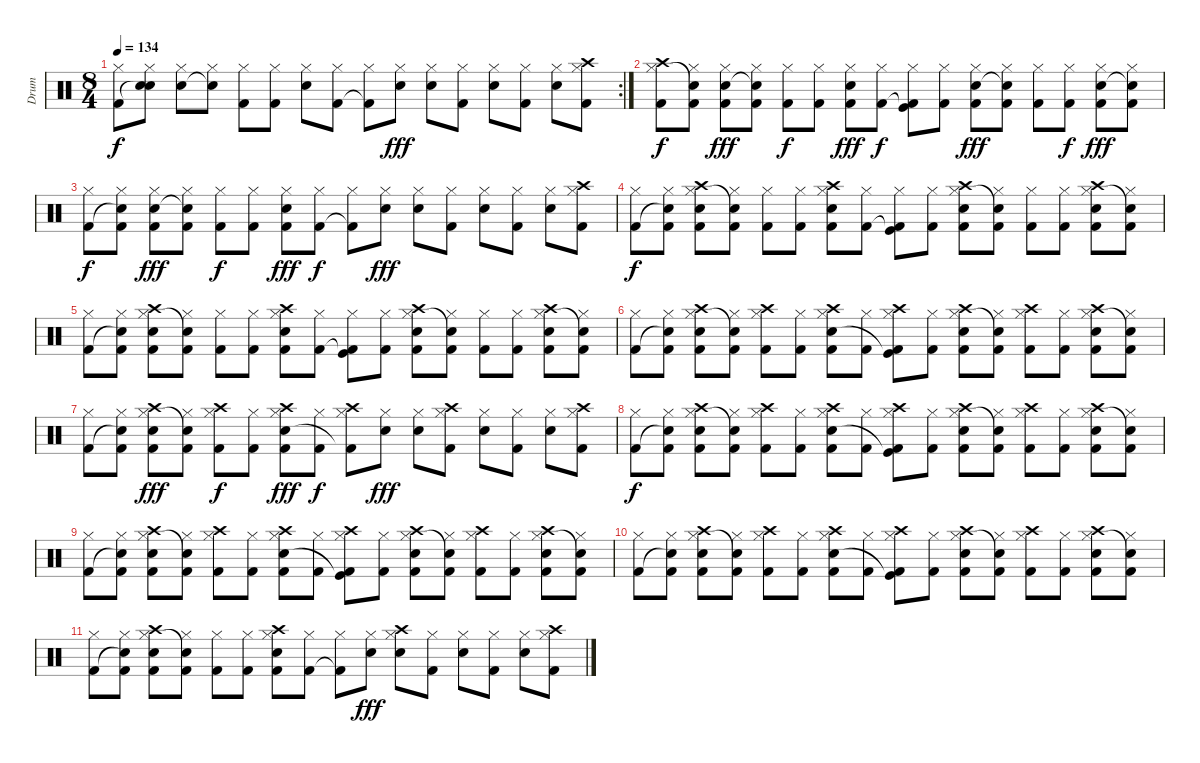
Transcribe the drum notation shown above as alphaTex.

\track ("Drum" "Drum") {instrument percussion}
\staff {score}
\articulation defaults
\rc 2
\ts (8 4)
\tempo 134
\clef neutral
\ks c
("Hi-Hat (closed)" "Kick (hit) 2").8{dy f} ("Hi-Hat (closed)" "Snare (hit)"{t} "Snare (hit)"{t}).8 ("Hi-Hat (closed)" "Snare (hit) 2").8 ("Hi-Hat (closed)" "Snare (hit)"{t}).8 ("Hi-Hat (closed)" "Kick (hit) 2").8 ("Hi-Hat (closed)" "Kick (hit) 2").8 ("Hi-Hat (closed)" "Snare (hit) 2").8 ("Hi-Hat (closed)" "Kick (hit) 2").8 ("Hi-Hat (closed)" "Kick (hit) 2"{t}).8 ("Hi-Hat (closed)" "Snare (hit) 2").8{dy fff} ("Hi-Hat (closed)" "Snare (hit) 2").8 ("Hi-Hat (closed)" "Kick (hit) 2").8 ("Hi-Hat (closed)" "Snare (hit) 2").8 ("Hi-Hat (closed)" "Kick (hit) 2").8 ("Hi-Hat (closed)" "Snare (hit) 2").8 ("Crash high (hit)" "Hi-Hat (closed)" "Kick (hit) 2").8 |
("Crash high (hit)" "Hi-Hat (closed)" "Kick (hit) 2").8{dy f} ("Hi-Hat (closed)" "Snare (hit)"{t} "Kick (hit) 2").8 ("Hi-Hat (closed)" "Snare (hit) 2" "Kick (hit) 2").8{dy fff} ("Hi-Hat (closed)" "Snare (hit)"{t} "Kick (hit) 2").8 ("Hi-Hat (closed)" "Kick (hit) 2").8{dy f} ("Hi-Hat (closed)" "Kick (hit) 2").8 ("Hi-Hat (closed)" "Snare (hit) 2" "Kick (hit) 2").8{dy fff} ("Hi-Hat (closed)" "Kick (hit) 2").8{dy f} ("Hi-Hat (closed)" "Kick (hit)"{t} "Kick (hit) 2").8 ("Hi-Hat (closed)" "Kick (hit) 2").8 ("Hi-Hat (closed)" "Snare (hit) 2" "Kick (hit) 2").8{dy fff} ("Hi-Hat (closed)" "Snare (hit)"{t} "Kick (hit) 2").8 ("Hi-Hat (closed)" "Kick (hit) 2").8 ("Hi-Hat (closed)" "Kick (hit) 2").8{dy f} ("Hi-Hat (closed)" "Snare (hit) 2" "Kick (hit) 2").8{dy fff} ("Hi-Hat (closed)" "Snare (hit)"{t} "Kick (hit) 2").8 |
("Hi-Hat (closed)" "Kick (hit) 2").8{dy f} ("Hi-Hat (closed)" "Snare (hit)"{t} "Kick (hit) 2").8 ("Hi-Hat (closed)" "Snare (hit) 2" "Kick (hit) 2").8{dy fff} ("Hi-Hat (closed)" "Snare (hit)"{t} "Kick (hit) 2").8 ("Hi-Hat (closed)" "Kick (hit) 2").8{dy f} ("Hi-Hat (closed)" "Kick (hit) 2").8 ("Hi-Hat (closed)" "Snare (hit) 2" "Kick (hit) 2").8{dy fff} ("Hi-Hat (closed)" "Kick (hit) 2").8{dy f} ("Hi-Hat (closed)" "Kick (hit) 2"{t}).8 ("Hi-Hat (closed)" "Snare (hit) 2").8{dy fff} ("Hi-Hat (closed)" "Snare (hit) 2").8 ("Hi-Hat (closed)" "Kick (hit) 2").8 ("Hi-Hat (closed)" "Snare (hit) 2").8 ("Hi-Hat (closed)" "Kick (hit) 2").8 ("Hi-Hat (closed)" "Snare (hit) 2").8 ("Crash high (hit)" "Hi-Hat (closed)" "Kick (hit) 2").8 |
("Hi-Hat (closed)" "Kick (hit) 2").8{dy f} ("Hi-Hat (closed)" "Snare (hit)"{t} "Kick (hit) 2").8 ("Crash high (hit)" "Hi-Hat (closed)" "Snare (hit) 2" "Kick (hit) 2").8 ("Hi-Hat (closed)" "Snare (hit)"{t} "Kick (hit) 2").8 ("Hi-Hat (closed)" "Kick (hit) 2").8 ("Hi-Hat (closed)" "Kick (hit) 2").8 ("Crash high (hit)" "Hi-Hat (closed)" "Snare (hit) 2" "Kick (hit) 2").8 ("Hi-Hat (closed)" "Kick (hit) 2").8 ("Hi-Hat (closed)" "Kick (hit)"{t} "Kick (hit) 2").8 ("Hi-Hat (closed)" "Kick (hit) 2").8 ("Crash high (hit)" "Hi-Hat (closed)" "Snare (hit) 2" "Kick (hit) 2").8 ("Hi-Hat (closed)" "Snare (hit)"{t} "Kick (hit) 2").8 ("Hi-Hat (closed)" "Kick (hit) 2").8 ("Hi-Hat (closed)" "Kick (hit) 2").8 ("Crash high (hit)" "Hi-Hat (closed)" "Snare (hit) 2" "Kick (hit) 2").8 ("Hi-Hat (closed)" "Snare (hit)"{t} "Kick (hit) 2").8 |
("Hi-Hat (closed)" "Kick (hit) 2").8 ("Hi-Hat (closed)" "Snare (hit)"{t} "Kick (hit) 2").8 ("Crash high (hit)" "Hi-Hat (closed)" "Snare (hit) 2" "Kick (hit) 2").8 ("Hi-Hat (closed)" "Snare (hit)"{t} "Kick (hit) 2").8 ("Hi-Hat (closed)" "Kick (hit) 2").8 ("Hi-Hat (closed)" "Kick (hit) 2").8 ("Crash high (hit)" "Hi-Hat (closed)" "Snare (hit) 2" "Kick (hit) 2").8 ("Hi-Hat (closed)" "Kick (hit) 2").8 ("Hi-Hat (closed)" "Kick (hit)"{t} "Kick (hit) 2").8 ("Hi-Hat (closed)" "Kick (hit) 2").8 ("Crash high (hit)" "Hi-Hat (closed)" "Snare (hit) 2" "Kick (hit) 2").8 ("Hi-Hat (closed)" "Snare (hit)"{t} "Kick (hit) 2").8 ("Hi-Hat (closed)" "Kick (hit) 2").8 ("Hi-Hat (closed)" "Kick (hit) 2").8 ("Crash high (hit)" "Hi-Hat (closed)" "Snare (hit) 2" "Kick (hit) 2").8 ("Hi-Hat (closed)" "Snare (hit)"{t} "Kick (hit) 2").8 |
("Hi-Hat (closed)" "Kick (hit) 2").8 ("Hi-Hat (closed)" "Snare (hit)"{t} "Kick (hit) 2").8 ("Crash high (hit)" "Hi-Hat (closed)" "Snare (hit) 2" "Kick (hit) 2").8 ("Hi-Hat (closed)" "Snare (hit)"{t} "Kick (hit) 2").8 ("Crash high (hit)" "Hi-Hat (closed)" "Kick (hit) 2").8 ("Hi-Hat (closed)" "Kick (hit) 2").8 ("Crash high (hit)" "Hi-Hat (closed)" "Snare (hit) 2" "Kick (hit) 2").8 ("Hi-Hat (closed)" "Kick (hit) 2").8 ("Crash high (hit)" "Hi-Hat (closed)" "Kick (hit)"{t} "Kick (hit) 2").8 ("Hi-Hat (closed)" "Kick (hit) 2").8 ("Crash high (hit)" "Hi-Hat (closed)" "Snare (hit) 2" "Kick (hit) 2").8 ("Hi-Hat (closed)" "Snare (hit)"{t} "Kick (hit) 2").8 ("Crash high (hit)" "Hi-Hat (closed)" "Kick (hit) 2").8 ("Hi-Hat (closed)" "Kick (hit) 2").8 ("Crash high (hit)" "Hi-Hat (closed)" "Snare (hit) 2" "Kick (hit) 2").8 ("Hi-Hat (closed)" "Snare (hit)"{t} "Kick (hit) 2").8 |
("Hi-Hat (closed)" "Kick (hit) 2").8 ("Hi-Hat (closed)" "Snare (hit)"{t} "Kick (hit) 2").8 ("Crash high (hit)" "Hi-Hat (closed)" "Snare (hit) 2" "Kick (hit) 2").8{dy fff} ("Hi-Hat (closed)" "Snare (hit)"{t} "Kick (hit) 2").8 ("Crash high (hit)" "Hi-Hat (closed)" "Kick (hit) 2").8{dy f} ("Hi-Hat (closed)" "Kick (hit) 2").8 ("Crash high (hit)" "Hi-Hat (closed)" "Snare (hit) 2" "Kick (hit) 2").8{dy fff} ("Hi-Hat (closed)" "Kick (hit) 2").8{dy f} ("Crash high (hit)" "Hi-Hat (closed)" "Kick (hit) 2"{t}).8 ("Hi-Hat (closed)" "Snare (hit) 2").8{dy fff} ("Hi-Hat (closed)" "Snare (hit) 2").8 ("Crash high (hit)" "Hi-Hat (closed)" "Kick (hit) 2").8 ("Hi-Hat (closed)" "Snare (hit) 2").8 ("Hi-Hat (closed)" "Kick (hit) 2").8 ("Hi-Hat (closed)" "Snare (hit) 2").8 ("Crash high (hit)" "Hi-Hat (closed)" "Kick (hit) 2").8 |
("Hi-Hat (closed)" "Kick (hit) 2").8{dy f} ("Hi-Hat (closed)" "Snare (hit)"{t} "Kick (hit) 2").8 ("Crash high (hit)" "Hi-Hat (closed)" "Snare (hit) 2" "Kick (hit) 2").8 ("Hi-Hat (closed)" "Snare (hit)"{t} "Kick (hit) 2").8 ("Crash high (hit)" "Hi-Hat (closed)" "Kick (hit) 2").8 ("Hi-Hat (closed)" "Kick (hit) 2").8 ("Crash high (hit)" "Hi-Hat (closed)" "Snare (hit) 2" "Kick (hit) 2").8 ("Hi-Hat (closed)" "Kick (hit) 2").8 ("Crash high (hit)" "Hi-Hat (closed)" "Kick (hit)"{t} "Kick (hit) 2").8 ("Hi-Hat (closed)" "Kick (hit) 2").8 ("Crash high (hit)" "Hi-Hat (closed)" "Snare (hit) 2" "Kick (hit) 2").8 ("Hi-Hat (closed)" "Snare (hit)"{t} "Kick (hit) 2").8 ("Crash high (hit)" "Hi-Hat (closed)" "Kick (hit) 2").8 ("Hi-Hat (closed)" "Kick (hit) 2").8 ("Crash high (hit)" "Hi-Hat (closed)" "Snare (hit) 2" "Kick (hit) 2").8 ("Hi-Hat (closed)" "Snare (hit)"{t} "Kick (hit) 2").8 |
("Hi-Hat (closed)" "Kick (hit) 2").8 ("Hi-Hat (closed)" "Snare (hit)"{t} "Kick (hit) 2").8 ("Crash high (hit)" "Hi-Hat (closed)" "Snare (hit) 2" "Kick (hit) 2").8 ("Hi-Hat (closed)" "Snare (hit)"{t} "Kick (hit) 2").8 ("Crash high (hit)" "Hi-Hat (closed)" "Kick (hit) 2").8 ("Hi-Hat (closed)" "Kick (hit) 2").8 ("Crash high (hit)" "Hi-Hat (closed)" "Snare (hit) 2" "Kick (hit) 2").8 ("Hi-Hat (closed)" "Kick (hit) 2").8 ("Crash high (hit)" "Hi-Hat (closed)" "Kick (hit)"{t} "Kick (hit) 2").8 ("Hi-Hat (closed)" "Kick (hit) 2").8 ("Crash high (hit)" "Hi-Hat (closed)" "Snare (hit) 2" "Kick (hit) 2").8 ("Hi-Hat (closed)" "Snare (hit)"{t} "Kick (hit) 2").8 ("Crash high (hit)" "Hi-Hat (closed)" "Kick (hit) 2").8 ("Hi-Hat (closed)" "Kick (hit) 2").8 ("Crash high (hit)" "Hi-Hat (closed)" "Snare (hit) 2" "Kick (hit) 2").8 ("Hi-Hat (closed)" "Snare (hit)"{t} "Kick (hit) 2").8 |
("Hi-Hat (closed)" "Kick (hit) 2").8 ("Hi-Hat (closed)" "Snare (hit)"{t} "Kick (hit) 2").8 ("Crash high (hit)" "Hi-Hat (closed)" "Snare (hit) 2" "Kick (hit) 2").8 ("Hi-Hat (closed)" "Snare (hit)"{t} "Kick (hit) 2").8 ("Crash high (hit)" "Hi-Hat (closed)" "Kick (hit) 2").8 ("Hi-Hat (closed)" "Kick (hit) 2").8 ("Crash high (hit)" "Hi-Hat (closed)" "Snare (hit) 2" "Kick (hit) 2").8 ("Hi-Hat (closed)" "Kick (hit) 2").8 ("Crash high (hit)" "Hi-Hat (closed)" "Kick (hit)"{t} "Kick (hit) 2").8 ("Hi-Hat (closed)" "Kick (hit) 2").8 ("Crash high (hit)" "Hi-Hat (closed)" "Snare (hit) 2" "Kick (hit) 2").8 ("Hi-Hat (closed)" "Snare (hit)"{t} "Kick (hit) 2").8 ("Crash high (hit)" "Hi-Hat (closed)" "Kick (hit) 2").8 ("Hi-Hat (closed)" "Kick (hit) 2").8 ("Crash high (hit)" "Hi-Hat (closed)" "Snare (hit) 2" "Kick (hit) 2").8 ("Hi-Hat (closed)" "Snare (hit)"{t} "Kick (hit) 2").8 |
("Hi-Hat (closed)" "Kick (hit) 2").8 ("Hi-Hat (closed)" "Snare (hit)"{t} "Kick (hit) 2").8 ("Crash high (hit)" "Hi-Hat (closed)" "Snare (hit) 2" "Kick (hit) 2").8 ("Hi-Hat (closed)" "Snare (hit)"{t} "Kick (hit) 2").8 ("Hi-Hat (closed)" "Kick (hit) 2").8 ("Hi-Hat (closed)" "Kick (hit) 2").8 ("Crash high (hit)" "Hi-Hat (closed)" "Snare (hit) 2" "Kick (hit) 2").8 ("Hi-Hat (closed)" "Kick (hit) 2").8 ("Hi-Hat (closed)" "Kick (hit) 2"{t}).8 ("Hi-Hat (closed)" "Snare (hit) 2").8{dy fff} ("Crash high (hit)" "Hi-Hat (closed)" "Snare (hit) 2").8 ("Hi-Hat (closed)" "Kick (hit) 2").8 ("Hi-Hat (closed)" "Snare (hit) 2").8 ("Hi-Hat (closed)" "Kick (hit) 2").8 ("Hi-Hat (closed)" "Snare (hit) 2").8 ("Crash high (hit)" "Hi-Hat (closed)" "Kick (hit) 2").8
